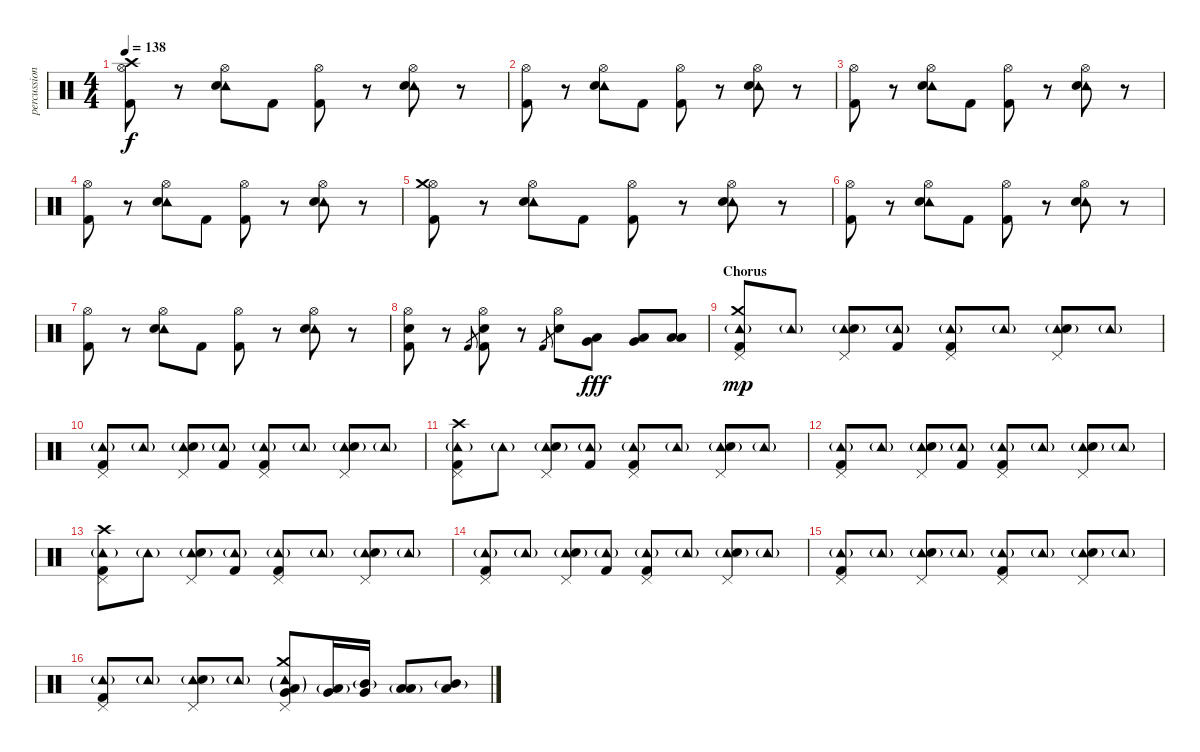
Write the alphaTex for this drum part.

\track ("percussion - vom" "percussion") {instrument percussion}
\staff {score}
\articulation defaults
\ts (4 4)
\tempo 138
\clef neutral
\ks c
("Hi-Hat (open)" "Crash high (hit)" "Kick (hit) 2").8{dy f} r.8 ("Hi-Hat (open)" "Tambourine (hit)" "Snare (hit) 2").8 "Kick (hit) 2".8 ("Hi-Hat (open)" "Kick (hit) 2").8 r.8 ("Hi-Hat (open)" "Tambourine (hit)" "Snare (hit) 2").8 r.8 |
("Hi-Hat (open)" "Kick (hit) 2").8 r.8 ("Hi-Hat (open)" "Tambourine (hit)" "Snare (hit) 2").8 "Kick (hit) 2".8 ("Hi-Hat (open)" "Kick (hit) 2").8 r.8 ("Hi-Hat (open)" "Tambourine (hit)" "Snare (hit) 2").8 r.8 |
("Hi-Hat (open)" "Kick (hit) 2").8 r.8 ("Hi-Hat (open)" "Tambourine (hit)" "Snare (hit) 2").8 "Kick (hit) 2".8 ("Hi-Hat (open)" "Kick (hit) 2").8 r.8 ("Hi-Hat (open)" "Tambourine (hit)" "Snare (hit) 2").8 r.8 |
("Hi-Hat (open)" "Kick (hit) 2").8 r.8 ("Hi-Hat (open)" "Tambourine (hit)" "Snare (hit) 2").8 "Kick (hit) 2".8 ("Hi-Hat (open)" "Kick (hit) 2").8 r.8 ("Hi-Hat (open)" "Tambourine (hit)" "Snare (hit) 2").8 r.8 |
("Hi-Hat (open)" "Crash medium (hit)" "Kick (hit) 2").8 r.8 ("Hi-Hat (open)" "Tambourine (hit)" "Snare (hit) 2").8 "Kick (hit) 2".8 ("Hi-Hat (open)" "Kick (hit) 2").8 r.8 ("Hi-Hat (open)" "Tambourine (hit)" "Snare (hit) 2").8 r.8 |
("Hi-Hat (open)" "Kick (hit) 2").8 r.8 ("Hi-Hat (open)" "Tambourine (hit)" "Snare (hit) 2").8 "Kick (hit) 2".8 ("Hi-Hat (open)" "Kick (hit) 2").8 r.8 ("Hi-Hat (open)" "Tambourine (hit)" "Snare (hit) 2").8 r.8 |
("Hi-Hat (open)" "Kick (hit) 2").8 r.8 ("Hi-Hat (open)" "Tambourine (hit)" "Snare (hit) 2").8 "Kick (hit) 2".8 ("Hi-Hat (open)" "Kick (hit) 2").8 r.8 ("Hi-Hat (open)" "Tambourine (hit)" "Snare (hit) 2").8 r.8 |
("Hi-Hat (open)" "Snare (hit) 2" "Kick (hit) 2").8 r.8 "Kick (hit) 2".8{gr} ("Hi-Hat (open)" "Snare (hit) 2" "Kick (hit) 2").8 r.8 "Kick (hit) 2".8{gr} ("Hi-Hat (open)" "Snare (hit) 2").8 ("Very Low Tom (hit)" "Low Floor Tom (hit)").8{bu 480 dy fff} ("Very Low Tom (hit)" "Low Tom (hit)").8{bu 480} ("Low Floor Tom (hit)" "Low Tom (hit)").8{bu 480} |
\section ("" "Chorus")
("Pedal Hi-Hat (hit)" "Tambourine (hit)"{g} "Crash medium (hit)" "Kick (hit) 2").8{dy mp} "Tambourine (hit)"{g}.8 ("Pedal Hi-Hat (hit)" "Tambourine (hit)"{g} "Snare (hit) 2").8 ("Tambourine (hit)"{g} "Kick (hit) 2").8 ("Pedal Hi-Hat (hit)" "Tambourine (hit)"{g} "Kick (hit) 2").8 "Tambourine (hit)"{g}.8 ("Pedal Hi-Hat (hit)" "Tambourine (hit)"{g} "Snare (hit) 2").8 "Tambourine (hit)"{g}.8 |
("Pedal Hi-Hat (hit)" "Tambourine (hit)"{g} "Kick (hit) 2").8 "Tambourine (hit)"{g}.8 ("Pedal Hi-Hat (hit)" "Tambourine (hit)"{g} "Snare (hit) 2").8 ("Tambourine (hit)"{g} "Kick (hit) 2").8 ("Pedal Hi-Hat (hit)" "Tambourine (hit)"{g} "Kick (hit) 2").8 "Tambourine (hit)"{g}.8 ("Pedal Hi-Hat (hit)" "Tambourine (hit)"{g} "Snare (hit) 2").8 "Tambourine (hit)"{g}.8 |
("Pedal Hi-Hat (hit)" "Tambourine (hit)"{g} "Crash high (hit)" "Kick (hit) 2").8 "Tambourine (hit)"{g}.8 ("Pedal Hi-Hat (hit)" "Tambourine (hit)"{g} "Snare (hit) 2").8 ("Tambourine (hit)"{g} "Kick (hit) 2").8 ("Pedal Hi-Hat (hit)" "Tambourine (hit)"{g} "Kick (hit) 2").8 "Tambourine (hit)"{g}.8 ("Pedal Hi-Hat (hit)" "Tambourine (hit)"{g} "Snare (hit) 2").8 "Tambourine (hit)"{g}.8 |
("Pedal Hi-Hat (hit)" "Tambourine (hit)"{g} "Kick (hit) 2").8 "Tambourine (hit)"{g}.8 ("Pedal Hi-Hat (hit)" "Tambourine (hit)"{g} "Snare (hit) 2").8 ("Tambourine (hit)"{g} "Kick (hit) 2").8 ("Pedal Hi-Hat (hit)" "Tambourine (hit)"{g} "Kick (hit) 2").8 "Tambourine (hit)"{g}.8 ("Pedal Hi-Hat (hit)" "Tambourine (hit)"{g} "Snare (hit) 2").8 "Tambourine (hit)"{g}.8 |
("Pedal Hi-Hat (hit)" "Tambourine (hit)"{g} "Crash high (hit)" "Kick (hit) 2").8 "Tambourine (hit)"{g}.8 ("Pedal Hi-Hat (hit)" "Tambourine (hit)"{g} "Snare (hit) 2").8 ("Tambourine (hit)"{g} "Kick (hit) 2").8 ("Pedal Hi-Hat (hit)" "Tambourine (hit)"{g} "Kick (hit) 2").8 "Tambourine (hit)"{g}.8 ("Pedal Hi-Hat (hit)" "Tambourine (hit)"{g} "Snare (hit) 2").8 "Tambourine (hit)"{g}.8 |
("Pedal Hi-Hat (hit)" "Tambourine (hit)"{g} "Kick (hit) 2").8 "Tambourine (hit)"{g}.8 ("Pedal Hi-Hat (hit)" "Tambourine (hit)"{g} "Snare (hit) 2").8 ("Tambourine (hit)"{g} "Kick (hit) 2").8 ("Pedal Hi-Hat (hit)" "Tambourine (hit)"{g} "Kick (hit) 2").8 "Tambourine (hit)"{g}.8 ("Pedal Hi-Hat (hit)" "Tambourine (hit)"{g} "Snare (hit) 2").8 "Tambourine (hit)"{g}.8 |
("Pedal Hi-Hat (hit)" "Tambourine (hit)"{g} "Kick (hit) 2").8 "Tambourine (hit)"{g}.8 ("Pedal Hi-Hat (hit)" "Tambourine (hit)"{g} "Snare (hit) 2").8 "Tambourine (hit)"{g}.8 ("Pedal Hi-Hat (hit)" "Tambourine (hit)"{g} "Kick (hit) 2").8 "Tambourine (hit)"{g}.8 ("Pedal Hi-Hat (hit)" "Tambourine (hit)"{g} "Snare (hit) 2").8 "Tambourine (hit)"{g}.8 |
("Pedal Hi-Hat (hit)" "Tambourine (hit)"{g} "Kick (hit) 2").8 "Tambourine (hit)"{g}.8 ("Pedal Hi-Hat (hit)" "Tambourine (hit)"{g} "Snare (hit) 2").8 "Tambourine (hit)"{g}.8 ("Pedal Hi-Hat (hit)" "Tambourine (hit)"{g} "Crash medium (hit)" "Very Low Tom (hit)" "Low Floor Tom (hit)"{g}).8 ("Very Low Tom (hit)" "Low Tom (hit)"{g}).16 ("Very Low Tom (hit)" "Mid Tom (hit)"{g}).16 ("Low Tom (hit)" "Low Floor Tom (hit)"{g}).8 ("Low Tom (hit)" "Mid Tom (hit)"{g}).8
